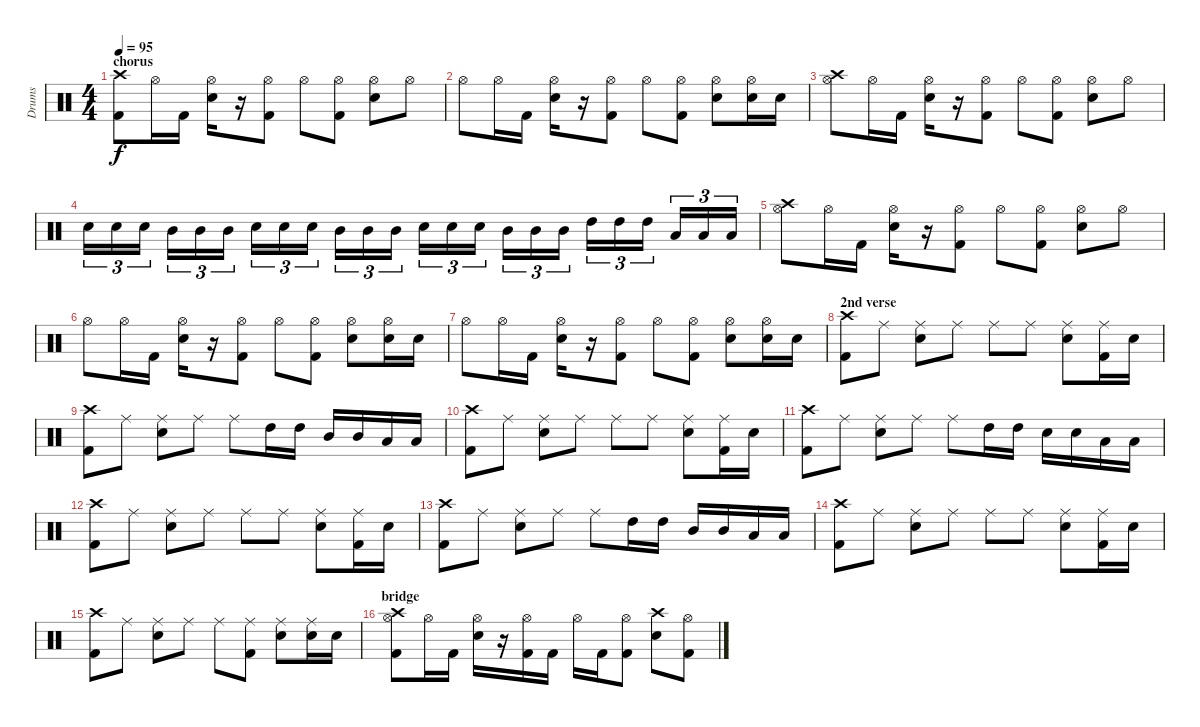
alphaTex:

\track ("Drums" "Drums") {instrument percussion}
\staff {score}
\articulation defaults
\ts (4 4)
\section ("" "chorus")
\tempo 95
\clef neutral
\ks c
("Kick (hit) 2" "Crash high (hit)").8{dy f} "Hi-Hat (open)".16 "Kick (hit) 2".16 ("Hi-Hat (open)" "Electric Snare (hit)").16 r.16 ("Hi-Hat (open)" "Kick (hit) 2").8 "Hi-Hat (open)".8 ("Hi-Hat (open)" "Kick (hit) 2").8 ("Hi-Hat (open)" "Electric Snare (hit)").8 "Hi-Hat (open)".8 |
"Hi-Hat (open)".8 "Hi-Hat (open)".16 "Kick (hit) 2".16 ("Hi-Hat (open)" "Electric Snare (hit)").16 r.16 ("Hi-Hat (open)" "Kick (hit) 2").8 "Hi-Hat (open)".8 ("Hi-Hat (open)" "Kick (hit) 2").8 ("Hi-Hat (open)" "Electric Snare (hit)").8 ("Hi-Hat (open)" "Electric Snare (hit)").16 "Electric Snare (hit)".16 |
("Hi-Hat (open)" "Crash high (hit)").8 "Hi-Hat (open)".16 "Kick (hit) 2".16 ("Hi-Hat (open)" "Electric Snare (hit)").16 r.16 ("Hi-Hat (open)" "Kick (hit) 2").8 "Hi-Hat (open)".8 ("Hi-Hat (open)" "Kick (hit) 2").8 ("Hi-Hat (open)" "Electric Snare (hit)").8 "Hi-Hat (open)".8 |
"Electric Snare (hit)".16{tu (3 2)} "Electric Snare (hit)".16{tu (3 2)} "Electric Snare (hit)".16{tu (3 2)} "Mid Tom (hit)".16{tu (3 2)} "Mid Tom (hit)".16{tu (3 2)} "Mid Tom (hit)".16{tu (3 2)} "Electric Snare (hit)".16{tu (3 2)} "Electric Snare (hit)".16{tu (3 2)} "Electric Snare (hit)".16{tu (3 2)} "Mid Tom (hit)".16{tu (3 2)} "Mid Tom (hit)".16{tu (3 2)} "Mid Tom (hit)".16{tu (3 2)} "Electric Snare (hit)".16{tu (3 2)} "Electric Snare (hit)".16{tu (3 2)} "Electric Snare (hit)".16{tu (3 2)} "Mid Tom (hit)".16{tu (3 2)} "Mid Tom (hit)".16{tu (3 2)} "Mid Tom (hit)".16{tu (3 2)} "High Tom (hit)".16{tu (3 2)} "High Tom (hit)".16{tu (3 2)} "High Tom (hit)".16{tu (3 2)} "Low Tom (hit)".16{tu (3 2)} "Low Tom (hit)".16{tu (3 2)} "Low Tom (hit)".16{tu (3 2)} |
("Hi-Hat (open)" "Crash high (hit)").8 "Hi-Hat (open)".16 "Kick (hit) 2".16 ("Hi-Hat (open)" "Electric Snare (hit)").16 r.16 ("Hi-Hat (open)" "Kick (hit) 2").8 "Hi-Hat (open)".8 ("Hi-Hat (open)" "Kick (hit) 2").8 ("Hi-Hat (open)" "Electric Snare (hit)").8 "Hi-Hat (open)".8 |
"Hi-Hat (open)".8 "Hi-Hat (open)".16 "Kick (hit) 2".16 ("Hi-Hat (open)" "Electric Snare (hit)").16 r.16 ("Hi-Hat (open)" "Kick (hit) 2").8 "Hi-Hat (open)".8 ("Hi-Hat (open)" "Kick (hit) 2").8 ("Hi-Hat (open)" "Electric Snare (hit)").8 ("Hi-Hat (open)" "Electric Snare (hit)").16 "Electric Snare (hit)".16 |
"Hi-Hat (open)".8 "Hi-Hat (open)".16 "Kick (hit) 2".16 ("Hi-Hat (open)" "Electric Snare (hit)").16 r.16 ("Hi-Hat (open)" "Kick (hit) 2").8 "Hi-Hat (open)".8 ("Hi-Hat (open)" "Kick (hit) 2").8 ("Hi-Hat (open)" "Electric Snare (hit)").8 ("Hi-Hat (open)" "Electric Snare (hit)").16 "Electric Snare (hit)".16 |
\section ("" "2nd verse")
("Crash high (hit)" "Kick (hit) 2").8 "Ride (middle)".8 ("Ride (middle)" "Electric Snare (hit)").8 "Ride (middle)".8 "Ride (middle)".8 "Ride (middle)".8 ("Ride (middle)" "Electric Snare (hit)").8 ("Ride (middle)" "Kick (hit) 2").16 "Electric Snare (hit)".16 |
("Crash high (hit)" "Kick (hit) 2").8 "Ride (middle)".8 ("Ride (middle)" "Electric Snare (hit)").8 "Ride (middle)".8 "Ride (middle)".8 "High Tom (hit)".16 "High Tom (hit)".16 "Mid Tom (hit)".16 "Mid Tom (hit)".16 "Low Tom (hit)".16 "Low Tom (hit)".16 |
("Crash high (hit)" "Kick (hit) 2").8 "Ride (middle)".8 ("Ride (middle)" "Electric Snare (hit)").8 "Ride (middle)".8 "Ride (middle)".8 "Ride (middle)".8 ("Ride (middle)" "Electric Snare (hit)").8 ("Ride (middle)" "Kick (hit) 2").16 "Electric Snare (hit)".16 |
("Crash high (hit)" "Kick (hit) 2").8 "Ride (middle)".8 ("Ride (middle)" "Electric Snare (hit)").8 "Ride (middle)".8 "Ride (middle)".8 "High Tom (hit)".16 "High Tom (hit)".16 "Electric Snare (hit)".16 "Electric Snare (hit)".16 "Low Tom (hit)".16 "Low Tom (hit)".16 |
("Crash high (hit)" "Kick (hit) 2").8 "Ride (middle)".8 ("Ride (middle)" "Electric Snare (hit)").8 "Ride (middle)".8 "Ride (middle)".8 "Ride (middle)".8 ("Ride (middle)" "Electric Snare (hit)").8 ("Ride (middle)" "Kick (hit) 2").16 "Electric Snare (hit)".16 |
("Crash high (hit)" "Kick (hit) 2").8 "Ride (middle)".8 ("Ride (middle)" "Electric Snare (hit)").8 "Ride (middle)".8 "Ride (middle)".8 "High Tom (hit)".16 "High Tom (hit)".16 "Mid Tom (hit)".16 "Mid Tom (hit)".16 "Low Tom (hit)".16 "Low Tom (hit)".16 |
("Crash high (hit)" "Kick (hit) 2").8 "Ride (middle)".8 ("Ride (middle)" "Electric Snare (hit)").8 "Ride (middle)".8 "Ride (middle)".8 "Ride (middle)".8 ("Ride (middle)" "Electric Snare (hit)").8 ("Ride (middle)" "Kick (hit) 2").16 "Electric Snare (hit)".16 |
("Crash high (hit)" "Kick (hit) 2").8 "Ride (middle)".8 ("Ride (middle)" "Electric Snare (hit)").8 "Ride (middle)".8 "Ride (middle)".8 ("Ride (middle)" "Kick (hit) 2").8 ("Ride (middle)" "Electric Snare (hit)").8 ("Ride (middle)" "Electric Snare (hit)").16 "Electric Snare (hit)".16 |
\section ("" "bridge")
("Hi-Hat (open)" "Crash high (hit)" "Kick (hit) 2").8 "Hi-Hat (open)".16 "Kick (hit) 2".16 ("Hi-Hat (open)" "Electric Snare (hit)").16 r.16 ("Hi-Hat (open)" "Kick (hit) 2").16 "Kick (hit) 2".16 "Hi-Hat (open)".16 "Kick (hit) 2".16 ("Hi-Hat (open)" "Kick (hit) 2").8 ("Electric Snare (hit)" "Crash high (hit)").8 ("Hi-Hat (open)" "Kick (hit) 2").8
